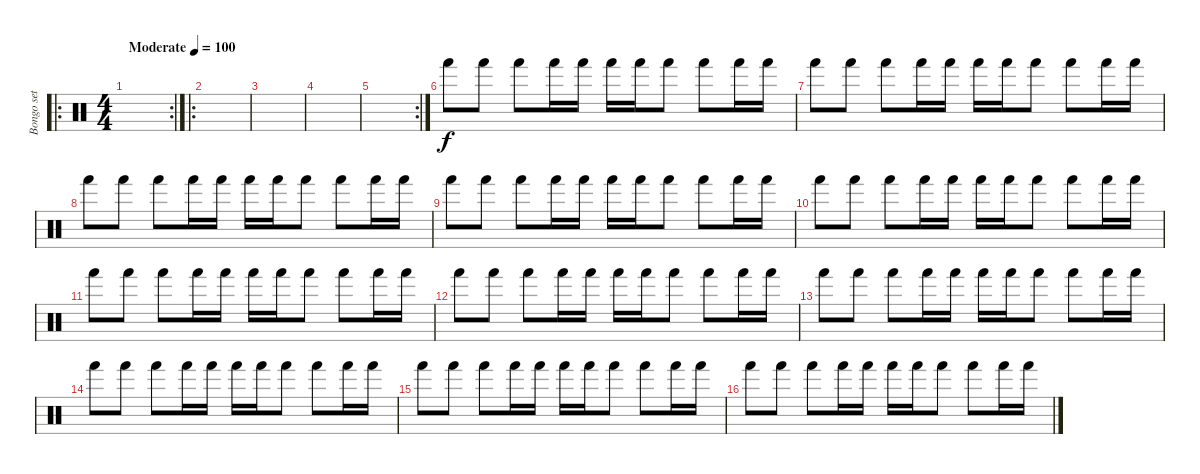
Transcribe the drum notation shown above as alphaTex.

\track ("Bongo set (for fill)" "Bongo set ") {instrument percussion}
\staff {score}
\articulation defaults
\ro
\rc 2
\ts (4 4)
\tempo (100 "Moderate")
\clef neutral
\ks c
|
\ro
|
|
|
\rc 2
|
"Hand (hit)".8 "Hand (hit)".8 "Hand (hit)".8 "Hand (hit)".16 "Hand (hit)".16 "Hand (hit)".16 "Hand (hit)".16 "Hand (hit)".8 "Hand (hit)".8 "Hand (hit)".16 "Hand (hit)".16 |
"Hand (hit)".8 "Hand (hit)".8 "Hand (hit)".8 "Hand (hit)".16 "Hand (hit)".16 "Hand (hit)".16 "Hand (hit)".16 "Hand (hit)".8 "Hand (hit)".8 "Hand (hit)".16 "Hand (hit)".16 |
"Hand (hit)".8 "Hand (hit)".8 "Hand (hit)".8 "Hand (hit)".16 "Hand (hit)".16 "Hand (hit)".16 "Hand (hit)".16 "Hand (hit)".8 "Hand (hit)".8 "Hand (hit)".16 "Hand (hit)".16 |
"Hand (hit)".8 "Hand (hit)".8 "Hand (hit)".8 "Hand (hit)".16 "Hand (hit)".16 "Hand (hit)".16 "Hand (hit)".16 "Hand (hit)".8 "Hand (hit)".8 "Hand (hit)".16 "Hand (hit)".16 |
"Hand (hit)".8 "Hand (hit)".8 "Hand (hit)".8 "Hand (hit)".16 "Hand (hit)".16 "Hand (hit)".16 "Hand (hit)".16 "Hand (hit)".8 "Hand (hit)".8 "Hand (hit)".16 "Hand (hit)".16 |
"Hand (hit)".8 "Hand (hit)".8 "Hand (hit)".8 "Hand (hit)".16 "Hand (hit)".16 "Hand (hit)".16 "Hand (hit)".16 "Hand (hit)".8 "Hand (hit)".8 "Hand (hit)".16 "Hand (hit)".16 |
"Hand (hit)".8 "Hand (hit)".8 "Hand (hit)".8 "Hand (hit)".16 "Hand (hit)".16 "Hand (hit)".16 "Hand (hit)".16 "Hand (hit)".8 "Hand (hit)".8 "Hand (hit)".16 "Hand (hit)".16 |
"Hand (hit)".8 "Hand (hit)".8 "Hand (hit)".8 "Hand (hit)".16 "Hand (hit)".16 "Hand (hit)".16 "Hand (hit)".16 "Hand (hit)".8 "Hand (hit)".8 "Hand (hit)".16 "Hand (hit)".16 |
"Hand (hit)".8 "Hand (hit)".8 "Hand (hit)".8 "Hand (hit)".16 "Hand (hit)".16 "Hand (hit)".16 "Hand (hit)".16 "Hand (hit)".8 "Hand (hit)".8 "Hand (hit)".16 "Hand (hit)".16 |
"Hand (hit)".8 "Hand (hit)".8 "Hand (hit)".8 "Hand (hit)".16 "Hand (hit)".16 "Hand (hit)".16 "Hand (hit)".16 "Hand (hit)".8 "Hand (hit)".8 "Hand (hit)".16 "Hand (hit)".16 |
"Hand (hit)".8 "Hand (hit)".8 "Hand (hit)".8 "Hand (hit)".16 "Hand (hit)".16 "Hand (hit)".16 "Hand (hit)".16 "Hand (hit)".8 "Hand (hit)".8 "Hand (hit)".16 "Hand (hit)".16
